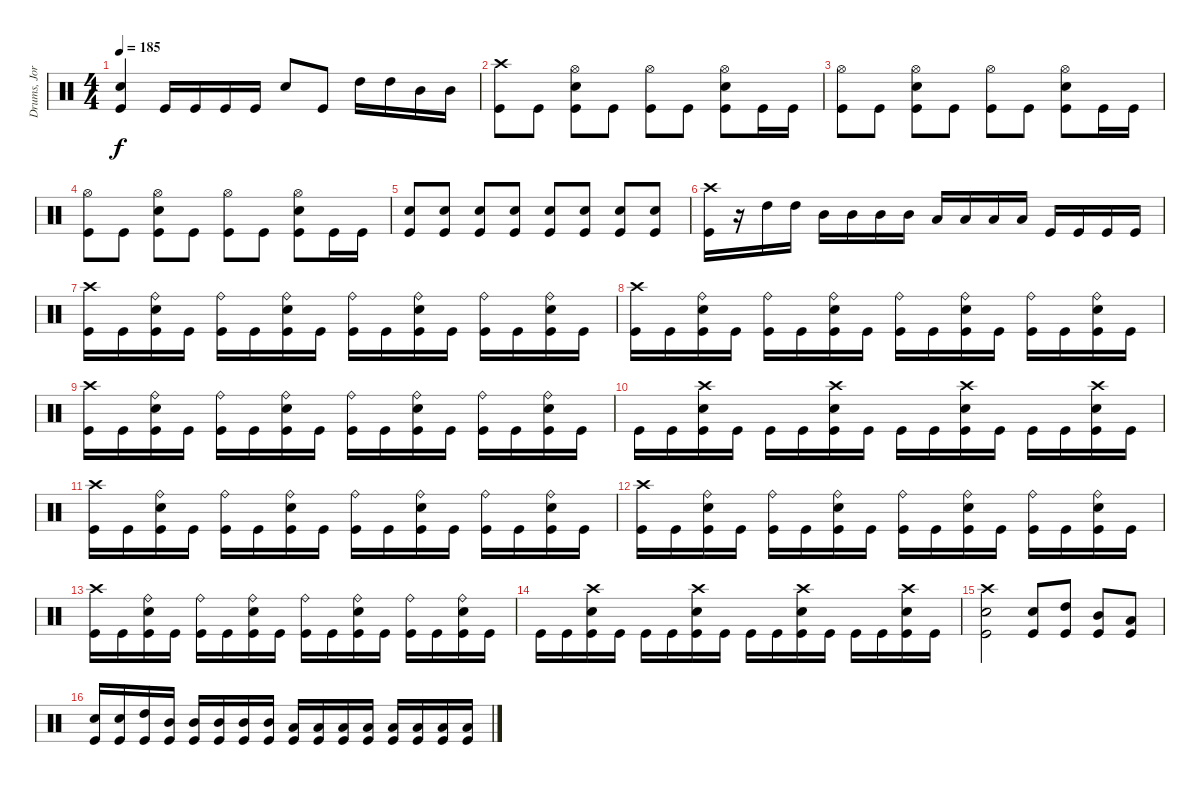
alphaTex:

\track ("Drums, Jorye Sáez" "Drums, Jor") {instrument percussion}
\staff {score}
\articulation defaults
\ts (4 4)
\tempo 185
\clef neutral
\ks c
("Electric Snare (hit)" "Kick (hit)").4{dy f} "Kick (hit)".16 "Kick (hit)".16 "Kick (hit)".16 "Kick (hit)".16 "Electric Snare (hit)".8 "Kick (hit)".8 "High Tom (hit)".16 "High Tom (hit)".16 "Mid Tom (hit)".16 "Mid Tom (hit)".16 |
("Crash high (hit)" "Kick (hit)").8 "Kick (hit)".8 ("Electric Snare (hit)" "Hi-Hat (open)" "Kick (hit)").8 "Kick (hit)".8 ("Hi-Hat (open)" "Kick (hit)").8 "Kick (hit)".8 ("Electric Snare (hit)" "Hi-Hat (open)" "Kick (hit)").8 "Kick (hit)".16 "Kick (hit)".16 |
("Hi-Hat (open)" "Kick (hit)").8 "Kick (hit)".8 ("Electric Snare (hit)" "Hi-Hat (open)" "Kick (hit)").8 "Kick (hit)".8 ("Hi-Hat (open)" "Kick (hit)").8 "Kick (hit)".8 ("Electric Snare (hit)" "Hi-Hat (open)" "Kick (hit)").8 "Kick (hit)".16 "Kick (hit)".16 |
("Hi-Hat (open)" "Kick (hit)").8 "Kick (hit)".8 ("Electric Snare (hit)" "Hi-Hat (open)" "Kick (hit)").8 "Kick (hit)".8 ("Hi-Hat (open)" "Kick (hit)").8 "Kick (hit)".8 ("Electric Snare (hit)" "Hi-Hat (open)" "Kick (hit)").8 "Kick (hit)".16 "Kick (hit)".16 |
("Electric Snare (hit)" "Kick (hit)").8 ("Electric Snare (hit)" "Kick (hit)").8 ("Electric Snare (hit)" "Kick (hit)").8 ("Electric Snare (hit)" "Kick (hit)").8 ("Electric Snare (hit)" "Kick (hit)").8 ("Electric Snare (hit)" "Kick (hit)").8 ("Electric Snare (hit)" "Kick (hit)").8 ("Electric Snare (hit)" "Kick (hit)").8 |
("Crash high (hit)" "Kick (hit)").16 r.16 "High Tom (hit)".16 "High Tom (hit)".16 "Mid Tom (hit)".16 "Mid Tom (hit)".16 "Mid Tom (hit)".16 "Mid Tom (hit)".16 "Low Tom (hit)".16 "Low Tom (hit)".16 "Low Tom (hit)".16 "Low Tom (hit)".16 "Kick (hit)".16 "Kick (hit)".16 "Kick (hit)".16 "Kick (hit)".16 |
("Crash high (hit)" "Kick (hit)").16 "Kick (hit)".16 ("Ride (bell)" "Electric Snare (hit)" "Kick (hit)").16 "Kick (hit)".16 ("Ride (bell)" "Kick (hit)").16 "Kick (hit)".16 ("Ride (bell)" "Electric Snare (hit)" "Kick (hit)").16 "Kick (hit)".16 ("Ride (bell)" "Kick (hit)").16 "Kick (hit)".16 ("Ride (bell)" "Electric Snare (hit)" "Kick (hit)").16 "Kick (hit)".16 ("Ride (bell)" "Kick (hit)").16 "Kick (hit)".16 ("Ride (bell)" "Electric Snare (hit)" "Kick (hit)").16 "Kick (hit)".16 |
("Crash high (hit)" "Kick (hit)").16 "Kick (hit)".16 ("Ride (bell)" "Electric Snare (hit)" "Kick (hit)").16 "Kick (hit)".16 ("Ride (bell)" "Kick (hit)").16 "Kick (hit)".16 ("Ride (bell)" "Electric Snare (hit)" "Kick (hit)").16 "Kick (hit)".16 ("Ride (bell)" "Kick (hit)").16 "Kick (hit)".16 ("Ride (bell)" "Electric Snare (hit)" "Kick (hit)").16 "Kick (hit)".16 ("Ride (bell)" "Kick (hit)").16 "Kick (hit)".16 ("Ride (bell)" "Electric Snare (hit)" "Kick (hit)").16 "Kick (hit)".16 |
("Crash high (hit)" "Kick (hit)").16 "Kick (hit)".16 ("Ride (bell)" "Electric Snare (hit)" "Kick (hit)").16 "Kick (hit)".16 ("Ride (bell)" "Kick (hit)").16 "Kick (hit)".16 ("Ride (bell)" "Electric Snare (hit)" "Kick (hit)").16 "Kick (hit)".16 ("Ride (bell)" "Kick (hit)").16 "Kick (hit)".16 ("Ride (bell)" "Electric Snare (hit)" "Kick (hit)").16 "Kick (hit)".16 ("Ride (bell)" "Kick (hit)").16 "Kick (hit)".16 ("Ride (bell)" "Electric Snare (hit)" "Kick (hit)").16 "Kick (hit)".16 |
"Kick (hit)".16 "Kick (hit)".16 ("Crash high (hit)" "Electric Snare (hit)" "Kick (hit)").16 "Kick (hit)".16 "Kick (hit)".16 "Kick (hit)".16 ("Crash high (hit)" "Electric Snare (hit)" "Kick (hit)").16 "Kick (hit)".16 "Kick (hit)".16 "Kick (hit)".16 ("Crash high (hit)" "Electric Snare (hit)" "Kick (hit)").16 "Kick (hit)".16 "Kick (hit)".16 "Kick (hit)".16 ("Crash high (hit)" "Electric Snare (hit)" "Kick (hit)").16 "Kick (hit)".16 |
("Crash high (hit)" "Kick (hit)").16 "Kick (hit)".16 ("Ride (bell)" "Electric Snare (hit)" "Kick (hit)").16 "Kick (hit)".16 ("Ride (bell)" "Kick (hit)").16 "Kick (hit)".16 ("Ride (bell)" "Electric Snare (hit)" "Kick (hit)").16 "Kick (hit)".16 ("Ride (bell)" "Kick (hit)").16 "Kick (hit)".16 ("Ride (bell)" "Electric Snare (hit)" "Kick (hit)").16 "Kick (hit)".16 ("Ride (bell)" "Kick (hit)").16 "Kick (hit)".16 ("Ride (bell)" "Electric Snare (hit)" "Kick (hit)").16 "Kick (hit)".16 |
("Crash high (hit)" "Kick (hit)").16 "Kick (hit)".16 ("Ride (bell)" "Electric Snare (hit)" "Kick (hit)").16 "Kick (hit)".16 ("Ride (bell)" "Kick (hit)").16 "Kick (hit)".16 ("Ride (bell)" "Electric Snare (hit)" "Kick (hit)").16 "Kick (hit)".16 ("Ride (bell)" "Kick (hit)").16 "Kick (hit)".16 ("Ride (bell)" "Electric Snare (hit)" "Kick (hit)").16 "Kick (hit)".16 ("Ride (bell)" "Kick (hit)").16 "Kick (hit)".16 ("Ride (bell)" "Electric Snare (hit)" "Kick (hit)").16 "Kick (hit)".16 |
("Crash high (hit)" "Kick (hit)").16 "Kick (hit)".16 ("Ride (bell)" "Electric Snare (hit)" "Kick (hit)").16 "Kick (hit)".16 ("Ride (bell)" "Kick (hit)").16 "Kick (hit)".16 ("Ride (bell)" "Electric Snare (hit)" "Kick (hit)").16 "Kick (hit)".16 ("Ride (bell)" "Kick (hit)").16 "Kick (hit)".16 ("Ride (bell)" "Electric Snare (hit)" "Kick (hit)").16 "Kick (hit)".16 ("Ride (bell)" "Kick (hit)").16 "Kick (hit)".16 ("Ride (bell)" "Electric Snare (hit)" "Kick (hit)").16 "Kick (hit)".16 |
"Kick (hit)".16 "Kick (hit)".16 ("Crash high (hit)" "Electric Snare (hit)" "Kick (hit)").16 "Kick (hit)".16 "Kick (hit)".16 "Kick (hit)".16 ("Crash high (hit)" "Electric Snare (hit)" "Kick (hit)").16 "Kick (hit)".16 "Kick (hit)".16 "Kick (hit)".16 ("Crash high (hit)" "Electric Snare (hit)" "Kick (hit)").16 "Kick (hit)".16 "Kick (hit)".16 "Kick (hit)".16 ("Crash high (hit)" "Electric Snare (hit)" "Kick (hit)").16 "Kick (hit)".16 |
("Crash high (hit)" "Electric Snare (hit)" "Kick (hit)").2 ("Kick (hit)" "Electric Snare (hit)").8 ("Kick (hit)" "High Tom (hit)").8 ("Kick (hit)" "Mid Tom (hit)").8 ("Kick (hit)" "Low Tom (hit)").8 |
("Kick (hit)" "Electric Snare (hit)").16 ("Kick (hit)" "Electric Snare (hit)").16 ("Kick (hit)" "High Tom (hit)").16 ("Kick (hit)" "Mid Tom (hit)").16 ("Kick (hit)" "Mid Tom (hit)").16 ("Kick (hit)" "Mid Tom (hit)").16 ("Kick (hit)" "Mid Tom (hit)").16 ("Kick (hit)" "Mid Tom (hit)").16 ("Kick (hit)" "Low Tom (hit)").16 ("Kick (hit)" "Low Tom (hit)").16 ("Kick (hit)" "Low Tom (hit)").16 ("Kick (hit)" "Low Tom (hit)").16 ("Kick (hit)" "Low Tom (hit)").16 ("Kick (hit)" "Low Tom (hit)").16 ("Kick (hit)" "Low Tom (hit)").16 ("Kick (hit)" "Low Tom (hit)").16
